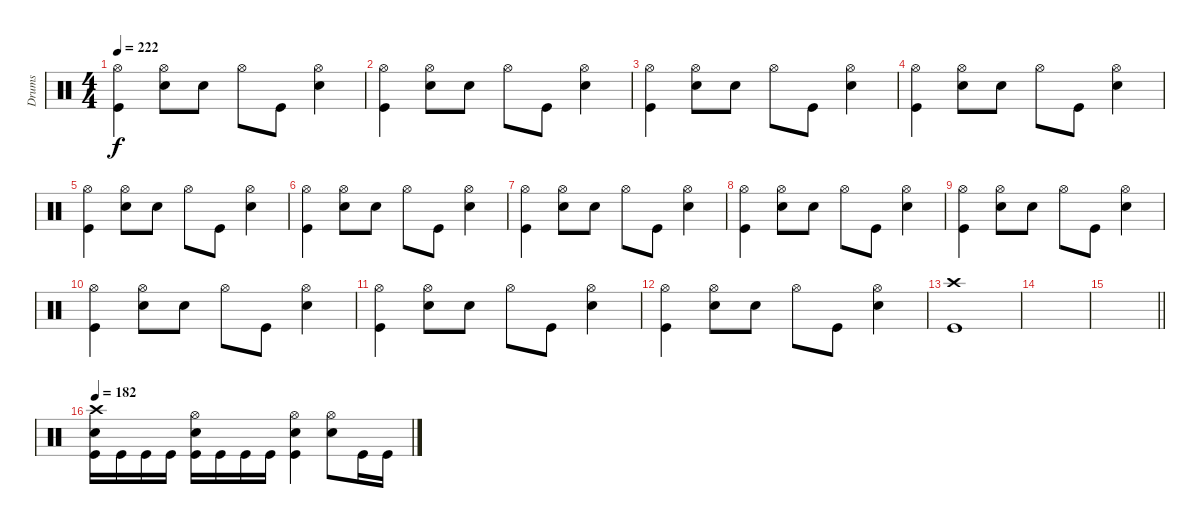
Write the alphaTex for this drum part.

\track ("Drums" "Drums") {instrument percussion}
\staff
\articulation defaults
\ts (4 4)
\section ("" "")
\tempo 222
\clef neutral
\ks c
("Hi-Hat (open)" "Kick (hit)").4{dy f} ("Hi-Hat (open)" "Electric Snare (hit)").8 "Electric Snare (hit)".8 "Hi-Hat (open)".8 "Kick (hit)".8 ("Hi-Hat (open)" "Electric Snare (hit)").4 |
("Hi-Hat (open)" "Kick (hit)").4 ("Hi-Hat (open)" "Electric Snare (hit)").8 "Electric Snare (hit)".8 "Hi-Hat (open)".8 "Kick (hit)".8 ("Hi-Hat (open)" "Electric Snare (hit)").4 |
("Hi-Hat (open)" "Kick (hit)").4 ("Hi-Hat (open)" "Electric Snare (hit)").8 "Electric Snare (hit)".8 "Hi-Hat (open)".8 "Kick (hit)".8 ("Hi-Hat (open)" "Electric Snare (hit)").4 |
("Hi-Hat (open)" "Kick (hit)").4 ("Hi-Hat (open)" "Electric Snare (hit)").8 "Electric Snare (hit)".8 "Hi-Hat (open)".8 "Kick (hit)".8 ("Hi-Hat (open)" "Electric Snare (hit)").4 |
("Hi-Hat (open)" "Kick (hit)").4 ("Hi-Hat (open)" "Electric Snare (hit)").8 "Electric Snare (hit)".8 "Hi-Hat (open)".8 "Kick (hit)".8 ("Hi-Hat (open)" "Electric Snare (hit)").4 |
("Hi-Hat (open)" "Kick (hit)").4 ("Hi-Hat (open)" "Electric Snare (hit)").8 "Electric Snare (hit)".8 "Hi-Hat (open)".8 "Kick (hit)".8 ("Hi-Hat (open)" "Electric Snare (hit)").4 |
("Hi-Hat (open)" "Kick (hit)").4 ("Hi-Hat (open)" "Electric Snare (hit)").8 "Electric Snare (hit)".8 "Hi-Hat (open)".8 "Kick (hit)".8 ("Hi-Hat (open)" "Electric Snare (hit)").4 |
("Hi-Hat (open)" "Kick (hit)").4 ("Hi-Hat (open)" "Electric Snare (hit)").8 "Electric Snare (hit)".8 "Hi-Hat (open)".8 "Kick (hit)".8 ("Hi-Hat (open)" "Electric Snare (hit)").4 |
("Hi-Hat (open)" "Kick (hit)").4 ("Hi-Hat (open)" "Electric Snare (hit)").8 "Electric Snare (hit)".8 "Hi-Hat (open)".8 "Kick (hit)".8 ("Hi-Hat (open)" "Electric Snare (hit)").4 |
("Hi-Hat (open)" "Kick (hit)").4 ("Hi-Hat (open)" "Electric Snare (hit)").8 "Electric Snare (hit)".8 "Hi-Hat (open)".8 "Kick (hit)".8 ("Hi-Hat (open)" "Electric Snare (hit)").4 |
("Hi-Hat (open)" "Kick (hit)").4 ("Hi-Hat (open)" "Electric Snare (hit)").8 "Electric Snare (hit)".8 "Hi-Hat (open)".8 "Kick (hit)".8 ("Hi-Hat (open)" "Electric Snare (hit)").4 |
("Hi-Hat (open)" "Kick (hit)").4 ("Hi-Hat (open)" "Electric Snare (hit)").8 "Electric Snare (hit)".8 "Hi-Hat (open)".8 "Kick (hit)".8 ("Hi-Hat (open)" "Electric Snare (hit)").4 |
("Crash high (hit)" "Kick (hit)").1 |
|
\barLineRight lightlight
|
\section ("" "")
\tempo 182
("Crash high (hit)" "Electric Snare (hit)" "Kick (hit)").16 "Kick (hit)".16 "Kick (hit)".16 "Kick (hit)".16 ("Hi-Hat (open)" "Electric Snare (hit)" "Kick (hit)").16 "Kick (hit)".16 "Kick (hit)".16 "Kick (hit)".16 ("Hi-Hat (open)" "Electric Snare (hit)" "Kick (hit)").4 ("Hi-Hat (open)" "Electric Snare (hit)").8 "Kick (hit)".16 "Kick (hit)".16
